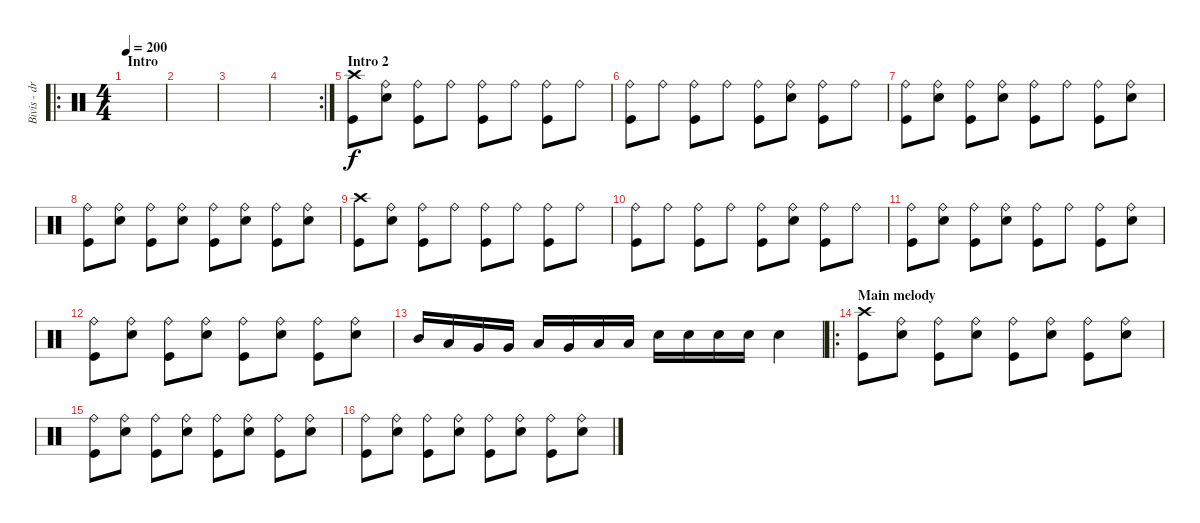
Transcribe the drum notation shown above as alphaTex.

\track ("Bivis - drums" "Bivis - dr") {instrument percussion}
\staff {score}
\articulation defaults
\ro
\ts (4 4)
\section ("" "Intro")
\tempo 200
\clef neutral
\ks c
|
|
|
\rc 2
|
\section ("" "Intro 2")
("Crash high (hit)" "Kick (hit)").8 ("Ride (bell)" "Electric Snare (hit)").8 ("Ride (bell)" "Kick (hit)").8 "Ride (bell)".8 ("Ride (bell)" "Kick (hit)").8 "Ride (bell)".8 ("Ride (bell)" "Kick (hit)").8 "Ride (bell)".8 |
("Ride (bell)" "Kick (hit)").8 "Ride (bell)".8 ("Ride (bell)" "Kick (hit)").8 "Ride (bell)".8 ("Ride (bell)" "Kick (hit)").8 ("Ride (bell)" "Electric Snare (hit)").8 ("Ride (bell)" "Kick (hit)").8 "Ride (bell)".8 |
("Ride (bell)" "Kick (hit)").8 ("Ride (bell)" "Electric Snare (hit)").8 ("Ride (bell)" "Kick (hit)").8 ("Ride (bell)" "Electric Snare (hit)").8 ("Ride (bell)" "Kick (hit)").8 "Ride (bell)".8 ("Ride (bell)" "Kick (hit)").8 ("Ride (bell)" "Electric Snare (hit)").8 |
("Ride (bell)" "Kick (hit)").8 ("Ride (bell)" "Electric Snare (hit)").8 ("Ride (bell)" "Kick (hit)").8 ("Ride (bell)" "Electric Snare (hit)").8 ("Ride (bell)" "Kick (hit)").8 ("Ride (bell)" "Electric Snare (hit)").8 ("Ride (bell)" "Kick (hit)").8 ("Ride (bell)" "Electric Snare (hit)").8 |
("Crash high (hit)" "Kick (hit)").8 ("Ride (bell)" "Electric Snare (hit)").8 ("Ride (bell)" "Kick (hit)").8 "Ride (bell)".8 ("Ride (bell)" "Kick (hit)").8 "Ride (bell)".8 ("Ride (bell)" "Kick (hit)").8 "Ride (bell)".8 |
("Ride (bell)" "Kick (hit)").8 "Ride (bell)".8 ("Ride (bell)" "Kick (hit)").8 "Ride (bell)".8 ("Ride (bell)" "Kick (hit)").8 ("Ride (bell)" "Electric Snare (hit)").8 ("Ride (bell)" "Kick (hit)").8 "Ride (bell)".8 |
("Ride (bell)" "Kick (hit)").8 ("Ride (bell)" "Electric Snare (hit)").8 ("Ride (bell)" "Kick (hit)").8 ("Ride (bell)" "Electric Snare (hit)").8 ("Ride (bell)" "Kick (hit)").8 "Ride (bell)".8 ("Ride (bell)" "Kick (hit)").8 ("Ride (bell)" "Electric Snare (hit)").8 |
("Ride (bell)" "Kick (hit)").8 ("Ride (bell)" "Electric Snare (hit)").8 ("Ride (bell)" "Kick (hit)").8 ("Ride (bell)" "Electric Snare (hit)").8 ("Ride (bell)" "Kick (hit)").8 ("Ride (bell)" "Electric Snare (hit)").8 ("Ride (bell)" "Kick (hit)").8 ("Ride (bell)" "Electric Snare (hit)").8 |
"Mid Tom (hit)".16 "Low Tom (hit)".16 "Very Low Tom (hit)".16 "Very Low Tom (hit)".16 "Low Tom (hit)".16 "Very Low Tom (hit)".16 "Low Floor Tom (hit)".16 "Low Floor Tom (hit)".16 "Electric Snare (hit)".16 "Electric Snare (hit)".16 "Electric Snare (hit)".16 "Electric Snare (hit)".16 "Electric Snare (hit)".4 |
\ro
\section ("" "Main melody")
("Crash high (hit)" "Kick (hit)").8 ("Ride (bell)" "Electric Snare (hit)").8 ("Ride (bell)" "Kick (hit)").8 ("Ride (bell)" "Electric Snare (hit)").8 ("Ride (bell)" "Kick (hit)").8 ("Ride (bell)" "Electric Snare (hit)").8 ("Ride (bell)" "Kick (hit)").8 ("Ride (bell)" "Electric Snare (hit)").8 |
("Ride (bell)" "Kick (hit)").8 ("Ride (bell)" "Electric Snare (hit)").8 ("Ride (bell)" "Kick (hit)").8 ("Ride (bell)" "Electric Snare (hit)").8 ("Ride (bell)" "Kick (hit)").8 ("Ride (bell)" "Electric Snare (hit)").8 ("Ride (bell)" "Kick (hit)").8 ("Ride (bell)" "Electric Snare (hit)").8 |
("Ride (bell)" "Kick (hit)").8 ("Ride (bell)" "Electric Snare (hit)").8 ("Ride (bell)" "Kick (hit)").8 ("Ride (bell)" "Electric Snare (hit)").8 ("Ride (bell)" "Kick (hit)").8 ("Ride (bell)" "Electric Snare (hit)").8 ("Ride (bell)" "Kick (hit)").8 ("Ride (bell)" "Electric Snare (hit)").8
